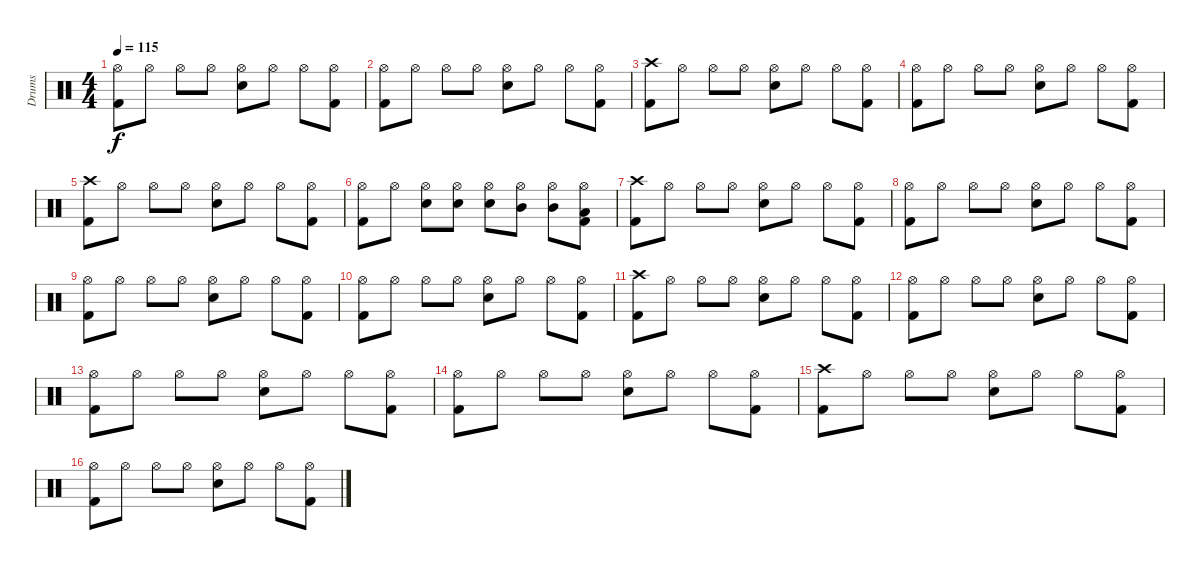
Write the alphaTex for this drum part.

\track ("Drums" "Drums") {instrument percussion}
\staff
\articulation defaults
\ts (4 4)
\tempo 115
\clef neutral
\ks c
("Hi-Hat (open)" "Kick (hit) 2").8{dy f} "Hi-Hat (open)".8 "Hi-Hat (open)".8 "Hi-Hat (open)".8 ("Snare (hit) 2" "Hi-Hat (open)").8 "Hi-Hat (open)".8 "Hi-Hat (open)".8 ("Hi-Hat (open)" "Kick (hit) 2").8 |
("Hi-Hat (open)" "Kick (hit) 2").8 "Hi-Hat (open)".8 "Hi-Hat (open)".8 "Hi-Hat (open)".8 ("Snare (hit) 2" "Hi-Hat (open)").8 "Hi-Hat (open)".8 "Hi-Hat (open)".8 ("Hi-Hat (open)" "Kick (hit) 2").8 |
("Crash high (hit)" "Kick (hit) 2").8 "Hi-Hat (open)".8 "Hi-Hat (open)".8 "Hi-Hat (open)".8 ("Snare (hit) 2" "Hi-Hat (open)").8 "Hi-Hat (open)".8 "Hi-Hat (open)".8 ("Hi-Hat (open)" "Kick (hit) 2").8 |
("Hi-Hat (open)" "Kick (hit) 2").8 "Hi-Hat (open)".8 "Hi-Hat (open)".8 "Hi-Hat (open)".8 ("Snare (hit) 2" "Hi-Hat (open)").8 "Hi-Hat (open)".8 "Hi-Hat (open)".8 ("Hi-Hat (open)" "Kick (hit) 2").8 |
("Crash high (hit)" "Kick (hit) 2").8 "Hi-Hat (open)".8 "Hi-Hat (open)".8 "Hi-Hat (open)".8 ("Snare (hit) 2" "Hi-Hat (open)").8 "Hi-Hat (open)".8 "Hi-Hat (open)".8 ("Hi-Hat (open)" "Kick (hit) 2").8 |
("Hi-Hat (open)" "Kick (hit) 2").8 "Hi-Hat (open)".8 ("Snare (hit) 2" "Hi-Hat (open)").8 ("Snare (hit) 2" "Hi-Hat (open)").8 ("Snare (hit) 2" "Hi-Hat (open)").8 ("Mid Tom (hit)" "Hi-Hat (open)").8 ("Mid Tom (hit)" "Hi-Hat (open)").8 ("Low Tom (hit)" "Hi-Hat (open)" "Kick (hit) 2").8 |
("Crash high (hit)" "Kick (hit) 2").8 "Hi-Hat (open)".8 "Hi-Hat (open)".8 "Hi-Hat (open)".8 ("Snare (hit) 2" "Hi-Hat (open)").8 "Hi-Hat (open)".8 "Hi-Hat (open)".8 ("Hi-Hat (open)" "Kick (hit) 2").8 |
("Hi-Hat (open)" "Kick (hit) 2").8 "Hi-Hat (open)".8 "Hi-Hat (open)".8 "Hi-Hat (open)".8 ("Snare (hit) 2" "Hi-Hat (open)").8 "Hi-Hat (open)".8 "Hi-Hat (open)".8 ("Hi-Hat (open)" "Kick (hit) 2").8 |
("Hi-Hat (open)" "Kick (hit) 2").8 "Hi-Hat (open)".8 "Hi-Hat (open)".8 "Hi-Hat (open)".8 ("Snare (hit) 2" "Hi-Hat (open)").8 "Hi-Hat (open)".8 "Hi-Hat (open)".8 ("Hi-Hat (open)" "Kick (hit) 2").8 |
("Hi-Hat (open)" "Kick (hit) 2").8 "Hi-Hat (open)".8 "Hi-Hat (open)".8 "Hi-Hat (open)".8 ("Snare (hit) 2" "Hi-Hat (open)").8 "Hi-Hat (open)".8 "Hi-Hat (open)".8 ("Hi-Hat (open)" "Kick (hit) 2").8 |
("Crash high (hit)" "Kick (hit) 2").8 "Hi-Hat (open)".8 "Hi-Hat (open)".8 "Hi-Hat (open)".8 ("Snare (hit) 2" "Hi-Hat (open)").8 "Hi-Hat (open)".8 "Hi-Hat (open)".8 ("Hi-Hat (open)" "Kick (hit) 2").8 |
("Hi-Hat (open)" "Kick (hit) 2").8 "Hi-Hat (open)".8 "Hi-Hat (open)".8 "Hi-Hat (open)".8 ("Snare (hit) 2" "Hi-Hat (open)").8 "Hi-Hat (open)".8 "Hi-Hat (open)".8 ("Hi-Hat (open)" "Kick (hit) 2").8 |
("Hi-Hat (open)" "Kick (hit) 2").8 "Hi-Hat (open)".8 "Hi-Hat (open)".8 "Hi-Hat (open)".8 ("Snare (hit) 2" "Hi-Hat (open)").8 "Hi-Hat (open)".8 "Hi-Hat (open)".8 ("Hi-Hat (open)" "Kick (hit) 2").8 |
("Hi-Hat (open)" "Kick (hit) 2").8 "Hi-Hat (open)".8 "Hi-Hat (open)".8 "Hi-Hat (open)".8 ("Snare (hit) 2" "Hi-Hat (open)").8 "Hi-Hat (open)".8 "Hi-Hat (open)".8 ("Hi-Hat (open)" "Kick (hit) 2").8 |
("Crash high (hit)" "Kick (hit) 2").8 "Hi-Hat (open)".8 "Hi-Hat (open)".8 "Hi-Hat (open)".8 ("Snare (hit) 2" "Hi-Hat (open)").8 "Hi-Hat (open)".8 "Hi-Hat (open)".8 ("Hi-Hat (open)" "Kick (hit) 2").8 |
("Hi-Hat (open)" "Kick (hit) 2").8 "Hi-Hat (open)".8 "Hi-Hat (open)".8 "Hi-Hat (open)".8 ("Snare (hit) 2" "Hi-Hat (open)").8 "Hi-Hat (open)".8 "Hi-Hat (open)".8 ("Hi-Hat (open)" "Kick (hit) 2").8
